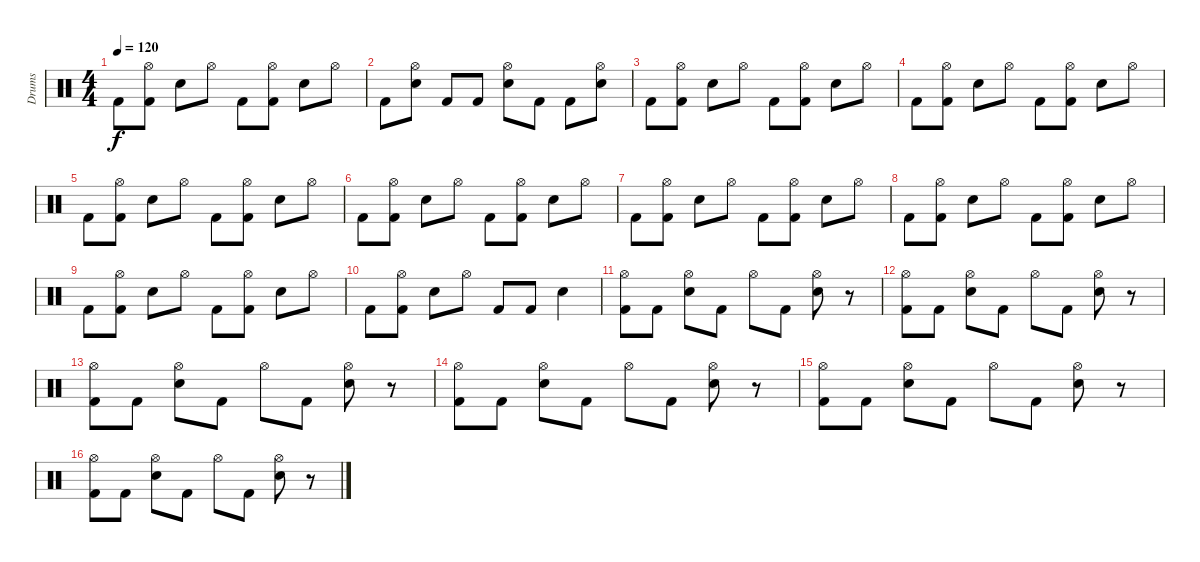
\track ("Drums" "Drums") {instrument percussion}
\staff {score}
\articulation defaults
\ts (4 4)
\tempo 120
\clef neutral
\ks c "Kick (hit) 2".8{dy f}
("Hi-Hat (open)" "Kick (hit) 2").8 "Electric Snare (hit)".8 "Hi-Hat (open)".8 "Kick (hit) 2".8 ("Hi-Hat (open)" "Kick (hit) 2").8 "Electric Snare (hit)".8 "Hi-Hat (open)".8 |
"Kick (hit) 2".8 ("Electric Snare (hit)" "Hi-Hat (open)").8 "Kick (hit) 2".8 "Kick (hit) 2".8 ("Hi-Hat (open)" "Electric Snare (hit)").8 "Kick (hit) 2".8 "Kick (hit) 2".8 ("Electric Snare (hit)" "Hi-Hat (open)").8 |
"Kick (hit) 2".8 ("Hi-Hat (open)" "Kick (hit) 2").8 "Electric Snare (hit)".8 "Hi-Hat (open)".8 "Kick (hit) 2".8 ("Hi-Hat (open)" "Kick (hit) 2").8 "Electric Snare (hit)".8 "Hi-Hat (open)".8 |
"Kick (hit) 2".8 ("Hi-Hat (open)" "Kick (hit) 2").8 "Electric Snare (hit)".8 "Hi-Hat (open)".8 "Kick (hit) 2".8 ("Hi-Hat (open)" "Kick (hit) 2").8 "Electric Snare (hit)".8 "Hi-Hat (open)".8 |
"Kick (hit) 2".8 ("Hi-Hat (open)" "Kick (hit) 2").8 "Electric Snare (hit)".8 "Hi-Hat (open)".8 "Kick (hit) 2".8 ("Hi-Hat (open)" "Kick (hit) 2").8 "Electric Snare (hit)".8 "Hi-Hat (open)".8 |
"Kick (hit) 2".8 ("Hi-Hat (open)" "Kick (hit) 2").8 "Electric Snare (hit)".8 "Hi-Hat (open)".8 "Kick (hit) 2".8 ("Hi-Hat (open)" "Kick (hit) 2").8 "Electric Snare (hit)".8 "Hi-Hat (open)".8 |
"Kick (hit) 2".8 ("Hi-Hat (open)" "Kick (hit) 2").8 "Electric Snare (hit)".8 "Hi-Hat (open)".8 "Kick (hit) 2".8 ("Hi-Hat (open)" "Kick (hit) 2").8 "Electric Snare (hit)".8 "Hi-Hat (open)".8 |
"Kick (hit) 2".8 ("Hi-Hat (open)" "Kick (hit) 2").8 "Electric Snare (hit)".8 "Hi-Hat (open)".8 "Kick (hit) 2".8 ("Hi-Hat (open)" "Kick (hit) 2").8 "Electric Snare (hit)".8 "Hi-Hat (open)".8 |
"Kick (hit) 2".8 ("Hi-Hat (open)" "Kick (hit) 2").8 "Electric Snare (hit)".8 "Hi-Hat (open)".8 "Kick (hit) 2".8 ("Hi-Hat (open)" "Kick (hit) 2").8 "Electric Snare (hit)".8 "Hi-Hat (open)".8 |
"Kick (hit) 2".8 ("Hi-Hat (open)" "Kick (hit) 2").8 "Electric Snare (hit)".8 "Hi-Hat (open)".8 "Kick (hit) 2".8 "Kick (hit) 2".8 "Electric Snare (hit)".4 |
("Hi-Hat (open)" "Kick (hit) 2").8 "Kick (hit) 2".8 ("Hi-Hat (open)" "Electric Snare (hit)").8 "Kick (hit) 2".8 "Hi-Hat (open)".8 "Kick (hit) 2".8 ("Hi-Hat (open)" "Electric Snare (hit)").8 r.8 |
("Hi-Hat (open)" "Kick (hit) 2").8 "Kick (hit) 2".8 ("Hi-Hat (open)" "Electric Snare (hit)").8 "Kick (hit) 2".8 "Hi-Hat (open)".8 "Kick (hit) 2".8 ("Hi-Hat (open)" "Electric Snare (hit)").8 r.8 |
("Hi-Hat (open)" "Kick (hit) 2").8 "Kick (hit) 2".8 ("Hi-Hat (open)" "Electric Snare (hit)").8 "Kick (hit) 2".8 "Hi-Hat (open)".8 "Kick (hit) 2".8 ("Hi-Hat (open)" "Electric Snare (hit)").8 r.8 |
("Hi-Hat (open)" "Kick (hit) 2").8 "Kick (hit) 2".8 ("Hi-Hat (open)" "Electric Snare (hit)").8 "Kick (hit) 2".8 "Hi-Hat (open)".8 "Kick (hit) 2".8 ("Hi-Hat (open)" "Electric Snare (hit)").8 r.8 |
("Hi-Hat (open)" "Kick (hit) 2").8 "Kick (hit) 2".8 ("Hi-Hat (open)" "Electric Snare (hit)").8 "Kick (hit) 2".8 "Hi-Hat (open)".8 "Kick (hit) 2".8 ("Hi-Hat (open)" "Electric Snare (hit)").8 r.8 |
("Hi-Hat (open)" "Kick (hit) 2").8 "Kick (hit) 2".8 ("Hi-Hat (open)" "Electric Snare (hit)").8 "Kick (hit) 2".8 "Hi-Hat (open)".8 "Kick (hit) 2".8 ("Hi-Hat (open)" "Electric Snare (hit)").8 r.8
